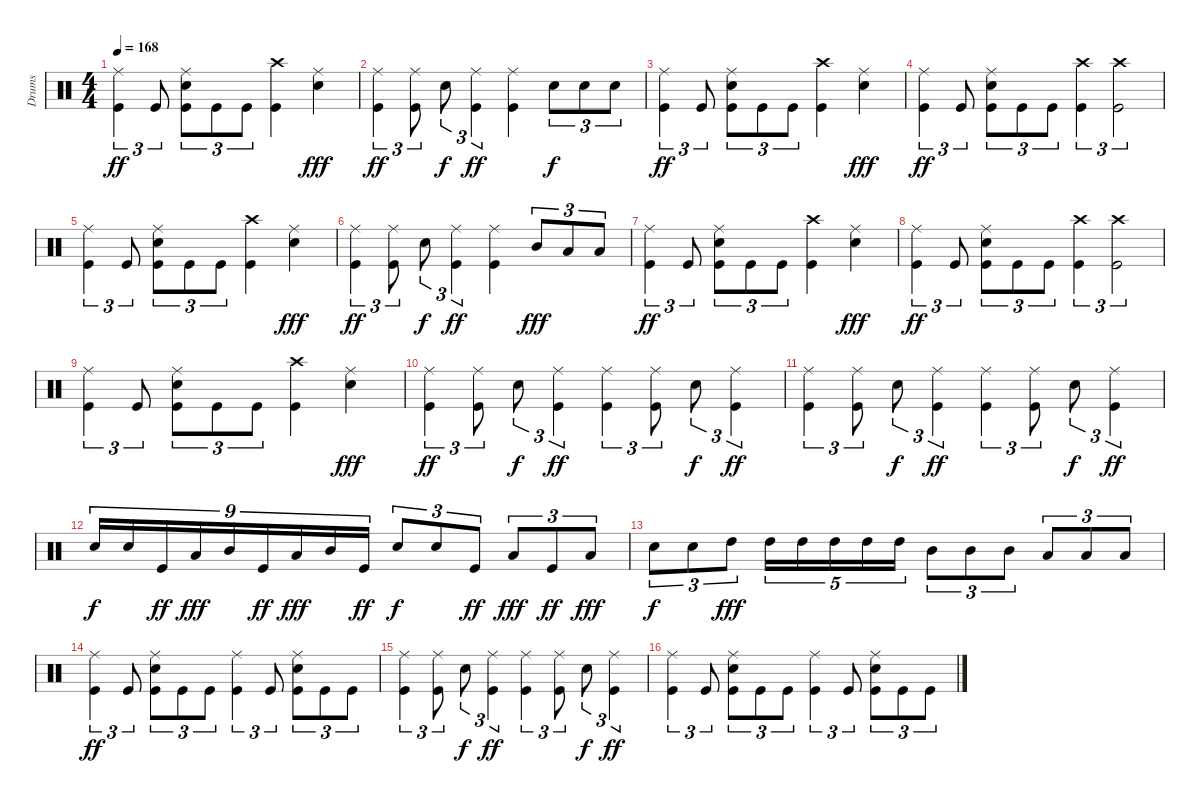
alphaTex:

\track ("Drums" "Drums") {instrument percussion}
\staff {score}
\articulation defaults
\ts (4 4)
\tempo 168
\clef neutral
\ks c
("Ride (middle)" "Kick (hit)").4{tu (3 2) dy ff} "Kick (hit)".8{tu (3 2)} ("Ride (middle)" "Electric Snare (hit)" "Kick (hit)").8{tu (3 2)} "Kick (hit)".8{tu (3 2)} "Kick (hit)".8{tu (3 2)} ("Crash high (hit)" "Kick (hit)").4 ("Ride (middle)" "Electric Snare (hit)").4{dy fff} |
("Ride (middle)" "Kick (hit)").4{tu (3 2) dy ff} ("Ride (middle)" "Kick (hit)").8{tu (3 2)} "Electric Snare (hit)".8{tu (3 2) dy f} ("Ride (middle)" "Kick (hit)").4{tu (3 2) dy ff} ("Ride (middle)" "Kick (hit)").4 "Electric Snare (hit)".8{tu (3 2) dy f} "Electric Snare (hit)".8{tu (3 2)} "Electric Snare (hit)".8{tu (3 2)} |
("Ride (middle)" "Kick (hit)").4{tu (3 2) dy ff} "Kick (hit)".8{tu (3 2)} ("Ride (middle)" "Electric Snare (hit)" "Kick (hit)").8{tu (3 2)} "Kick (hit)".8{tu (3 2)} "Kick (hit)".8{tu (3 2)} ("Crash high (hit)" "Kick (hit)").4 ("Ride (middle)" "Electric Snare (hit)").4{dy fff} |
("Ride (middle)" "Kick (hit)").4{tu (3 2) dy ff} "Kick (hit)".8{tu (3 2)} ("Ride (middle)" "Electric Snare (hit)" "Kick (hit)").8{tu (3 2)} "Kick (hit)".8{tu (3 2)} "Kick (hit)".8{tu (3 2)} ("Crash high (hit)" "Kick (hit)").4{tu (3 2)} ("Crash high (hit)" "Kick (hit)").2{tu (3 2)} |
("Ride (middle)" "Kick (hit)").4{tu (3 2)} "Kick (hit)".8{tu (3 2)} ("Ride (middle)" "Electric Snare (hit)" "Kick (hit)").8{tu (3 2)} "Kick (hit)".8{tu (3 2)} "Kick (hit)".8{tu (3 2)} ("Crash high (hit)" "Kick (hit)").4 ("Ride (middle)" "Electric Snare (hit)").4{dy fff} |
("Ride (middle)" "Kick (hit)").4{tu (3 2) dy ff} ("Ride (middle)" "Kick (hit)").8{tu (3 2)} "Electric Snare (hit)".8{tu (3 2) dy f} ("Ride (middle)" "Kick (hit)").4{tu (3 2) dy ff} ("Ride (middle)" "Kick (hit)").4 "Mid Tom (hit)".8{tu (3 2) dy fff} "Low Tom (hit)".8{tu (3 2)} "Low Tom (hit)".8{tu (3 2)} |
("Ride (middle)" "Kick (hit)").4{tu (3 2) dy ff} "Kick (hit)".8{tu (3 2)} ("Ride (middle)" "Electric Snare (hit)" "Kick (hit)").8{tu (3 2)} "Kick (hit)".8{tu (3 2)} "Kick (hit)".8{tu (3 2)} ("Crash high (hit)" "Kick (hit)").4 ("Ride (middle)" "Electric Snare (hit)").4{dy fff} |
("Ride (middle)" "Kick (hit)").4{tu (3 2) dy ff} "Kick (hit)".8{tu (3 2)} ("Ride (middle)" "Electric Snare (hit)" "Kick (hit)").8{tu (3 2)} "Kick (hit)".8{tu (3 2)} "Kick (hit)".8{tu (3 2)} ("Crash high (hit)" "Kick (hit)").4{tu (3 2)} ("Crash high (hit)" "Kick (hit)").2{tu (3 2)} |
("Ride (middle)" "Kick (hit)").4{tu (3 2)} "Kick (hit)".8{tu (3 2)} ("Ride (middle)" "Electric Snare (hit)" "Kick (hit)").8{tu (3 2)} "Kick (hit)".8{tu (3 2)} "Kick (hit)".8{tu (3 2)} ("Crash high (hit)" "Kick (hit)").4 ("Ride (middle)" "Electric Snare (hit)").4{dy fff} |
("Ride (middle)" "Kick (hit)").4{tu (3 2) dy ff} ("Ride (middle)" "Kick (hit)").8{tu (3 2)} "Electric Snare (hit)".8{tu (3 2) dy f} ("Ride (middle)" "Kick (hit)").4{tu (3 2) dy ff} ("Ride (middle)" "Kick (hit)").4{tu (3 2)} ("Ride (middle)" "Kick (hit)").8{tu (3 2)} "Electric Snare (hit)".8{tu (3 2) dy f} ("Ride (middle)" "Kick (hit)").4{tu (3 2) dy ff} |
("Ride (middle)" "Kick (hit)").4{tu (3 2)} ("Ride (middle)" "Kick (hit)").8{tu (3 2)} "Electric Snare (hit)".8{tu (3 2) dy f} ("Ride (middle)" "Kick (hit)").4{tu (3 2) dy ff} ("Ride (middle)" "Kick (hit)").4{tu (3 2)} ("Ride (middle)" "Kick (hit)").8{tu (3 2)} "Electric Snare (hit)".8{tu (3 2) dy f} ("Ride (middle)" "Kick (hit)").4{tu (3 2) dy ff} |
"Electric Snare (hit)".16{tu (9 8) dy f} "Electric Snare (hit)".16{tu (9 8)} "Kick (hit)".16{tu (9 8) dy ff} "Low Tom (hit)".16{tu (9 8) dy fff} "Mid Tom (hit)".16{tu (9 8)} "Kick (hit)".16{tu (9 8) dy ff} "Low Tom (hit)".16{tu (9 8) dy fff} "Mid Tom (hit)".16{tu (9 8)} "Kick (hit)".16{tu (9 8) dy ff} "Electric Snare (hit)".8{tu (3 2) dy f} "Electric Snare (hit)".8{tu (3 2)} "Kick (hit)".8{tu (3 2) dy ff} "Low Tom (hit)".8{tu (3 2) dy fff} "Kick (hit)".8{tu (3 2) dy ff} "Low Tom (hit)".8{tu (3 2) dy fff} |
"Electric Snare (hit)".8{tu (3 2) dy f} "Electric Snare (hit)".8{tu (3 2)} "High Tom (hit)".8{tu (3 2) dy fff} "High Tom (hit)".16{tu (5 4)} "High Tom (hit)".16{tu (5 4)} "High Tom (hit)".16{tu (5 4)} "High Tom (hit)".16{tu (5 4)} "High Tom (hit)".16{tu (5 4)} "Mid Tom (hit)".8{tu (3 2)} "Mid Tom (hit)".8{tu (3 2)} "Mid Tom (hit)".8{tu (3 2)} "Low Tom (hit)".8{tu (3 2)} "Low Tom (hit)".8{tu (3 2)} "Low Tom (hit)".8{tu (3 2)} |
("Ride (middle)" "Kick (hit)").4{tu (3 2) dy ff} "Kick (hit)".8{tu (3 2)} ("Ride (middle)" "Electric Snare (hit)" "Kick (hit)").8{tu (3 2)} "Kick (hit)".8{tu (3 2)} "Kick (hit)".8{tu (3 2)} ("Ride (middle)" "Kick (hit)").4{tu (3 2)} "Kick (hit)".8{tu (3 2)} ("Ride (middle)" "Electric Snare (hit)" "Kick (hit)").8{tu (3 2)} "Kick (hit)".8{tu (3 2)} "Kick (hit)".8{tu (3 2)} |
("Ride (middle)" "Kick (hit)").4{tu (3 2)} ("Ride (middle)" "Kick (hit)").8{tu (3 2)} "Electric Snare (hit)".8{tu (3 2) dy f} ("Ride (middle)" "Kick (hit)").4{tu (3 2) dy ff} ("Ride (middle)" "Kick (hit)").4{tu (3 2)} ("Ride (middle)" "Kick (hit)").8{tu (3 2)} "Electric Snare (hit)".8{tu (3 2) dy f} ("Ride (middle)" "Kick (hit)").4{tu (3 2) dy ff} |
("Ride (middle)" "Kick (hit)").4{tu (3 2)} "Kick (hit)".8{tu (3 2)} ("Ride (middle)" "Electric Snare (hit)" "Kick (hit)").8{tu (3 2)} "Kick (hit)".8{tu (3 2)} "Kick (hit)".8{tu (3 2)} ("Ride (middle)" "Kick (hit)").4{tu (3 2)} "Kick (hit)".8{tu (3 2)} ("Ride (middle)" "Electric Snare (hit)" "Kick (hit)").8{tu (3 2)} "Kick (hit)".8{tu (3 2)} "Kick (hit)".8{tu (3 2)}
